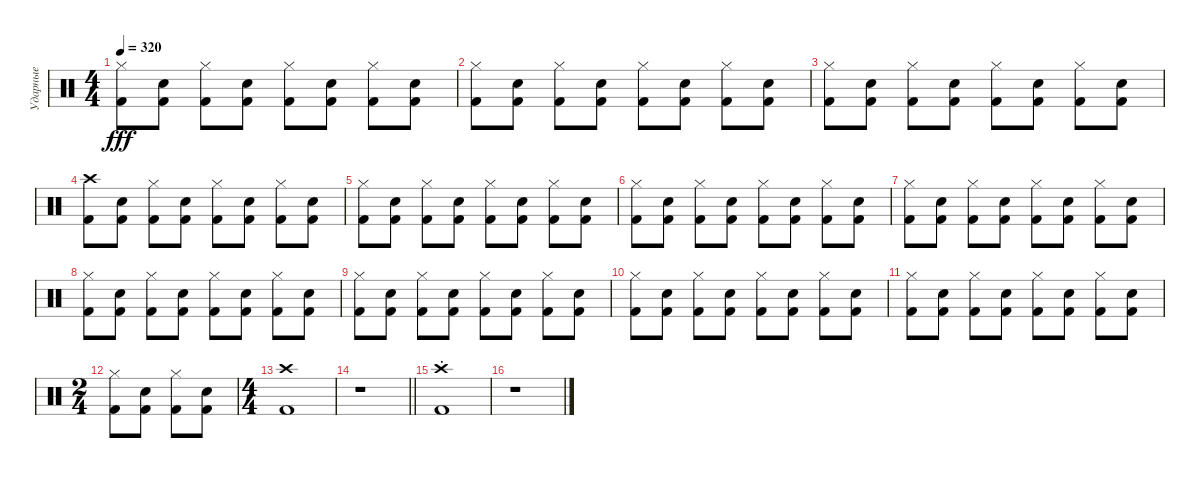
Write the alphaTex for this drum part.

\track ("Ударные" "Ударные") {instrument percussion}
\staff {score}
\articulation defaults
\ts (4 4)
\tempo 320
\clef neutral
\ks c
("Kick (hit) 2" "Hi-Hat (closed)").8{dy fff} ("Kick (hit) 2" "Snare (hit) 2").8 ("Kick (hit) 2" "Hi-Hat (closed)").8 ("Kick (hit) 2" "Snare (hit) 2").8 ("Kick (hit) 2" "Hi-Hat (closed)").8 ("Kick (hit) 2" "Snare (hit) 2").8 ("Kick (hit) 2" "Hi-Hat (closed)").8 ("Kick (hit) 2" "Snare (hit) 2").8 |
("Kick (hit) 2" "Hi-Hat (closed)").8 ("Kick (hit) 2" "Snare (hit) 2").8 ("Kick (hit) 2" "Hi-Hat (closed)").8 ("Kick (hit) 2" "Snare (hit) 2").8 ("Kick (hit) 2" "Hi-Hat (closed)").8 ("Kick (hit) 2" "Snare (hit) 2").8 ("Kick (hit) 2" "Hi-Hat (closed)").8 ("Kick (hit) 2" "Snare (hit) 2").8 |
("Kick (hit) 2" "Hi-Hat (closed)").8 ("Kick (hit) 2" "Snare (hit) 2").8 ("Kick (hit) 2" "Hi-Hat (closed)").8 ("Kick (hit) 2" "Snare (hit) 2").8 ("Kick (hit) 2" "Hi-Hat (closed)").8 ("Kick (hit) 2" "Snare (hit) 2").8 ("Kick (hit) 2" "Hi-Hat (closed)").8 ("Kick (hit) 2" "Snare (hit) 2").8 |
("Kick (hit) 2" "Crash high (hit)").8 ("Kick (hit) 2" "Snare (hit) 2").8 ("Kick (hit) 2" "Hi-Hat (closed)").8 ("Kick (hit) 2" "Snare (hit) 2").8 ("Kick (hit) 2" "Hi-Hat (closed)").8 ("Kick (hit) 2" "Snare (hit) 2").8 ("Kick (hit) 2" "Hi-Hat (closed)").8 ("Kick (hit) 2" "Snare (hit) 2").8 |
("Kick (hit) 2" "Hi-Hat (closed)").8 ("Kick (hit) 2" "Snare (hit) 2").8 ("Kick (hit) 2" "Hi-Hat (closed)").8 ("Kick (hit) 2" "Snare (hit) 2").8 ("Kick (hit) 2" "Hi-Hat (closed)").8 ("Kick (hit) 2" "Snare (hit) 2").8 ("Kick (hit) 2" "Hi-Hat (closed)").8 ("Kick (hit) 2" "Snare (hit) 2").8 |
("Kick (hit) 2" "Hi-Hat (closed)").8 ("Kick (hit) 2" "Snare (hit) 2").8 ("Kick (hit) 2" "Hi-Hat (closed)").8 ("Kick (hit) 2" "Snare (hit) 2").8 ("Kick (hit) 2" "Hi-Hat (closed)").8 ("Kick (hit) 2" "Snare (hit) 2").8 ("Kick (hit) 2" "Hi-Hat (closed)").8 ("Kick (hit) 2" "Snare (hit) 2").8 |
("Kick (hit) 2" "Hi-Hat (closed)").8 ("Kick (hit) 2" "Snare (hit) 2").8 ("Kick (hit) 2" "Hi-Hat (closed)").8 ("Kick (hit) 2" "Snare (hit) 2").8 ("Kick (hit) 2" "Hi-Hat (closed)").8 ("Kick (hit) 2" "Snare (hit) 2").8 ("Kick (hit) 2" "Hi-Hat (closed)").8 ("Kick (hit) 2" "Snare (hit) 2").8 |
("Kick (hit) 2" "Hi-Hat (closed)").8 ("Kick (hit) 2" "Snare (hit) 2").8 ("Kick (hit) 2" "Hi-Hat (closed)").8 ("Kick (hit) 2" "Snare (hit) 2").8 ("Kick (hit) 2" "Hi-Hat (closed)").8 ("Kick (hit) 2" "Snare (hit) 2").8 ("Kick (hit) 2" "Hi-Hat (closed)").8 ("Kick (hit) 2" "Snare (hit) 2").8 |
("Kick (hit) 2" "Hi-Hat (closed)").8 ("Kick (hit) 2" "Snare (hit) 2").8 ("Kick (hit) 2" "Hi-Hat (closed)").8 ("Kick (hit) 2" "Snare (hit) 2").8 ("Kick (hit) 2" "Hi-Hat (closed)").8 ("Kick (hit) 2" "Snare (hit) 2").8 ("Kick (hit) 2" "Hi-Hat (closed)").8 ("Kick (hit) 2" "Snare (hit) 2").8 |
("Kick (hit) 2" "Hi-Hat (closed)").8 ("Kick (hit) 2" "Snare (hit) 2").8 ("Kick (hit) 2" "Hi-Hat (closed)").8 ("Kick (hit) 2" "Snare (hit) 2").8 ("Kick (hit) 2" "Hi-Hat (closed)").8 ("Kick (hit) 2" "Snare (hit) 2").8 ("Kick (hit) 2" "Hi-Hat (closed)").8 ("Kick (hit) 2" "Snare (hit) 2").8 |
("Kick (hit) 2" "Hi-Hat (closed)").8 ("Kick (hit) 2" "Snare (hit) 2").8 ("Kick (hit) 2" "Hi-Hat (closed)").8 ("Kick (hit) 2" "Snare (hit) 2").8 ("Kick (hit) 2" "Hi-Hat (closed)").8 ("Kick (hit) 2" "Snare (hit) 2").8 ("Kick (hit) 2" "Hi-Hat (closed)").8 ("Kick (hit) 2" "Snare (hit) 2").8 |
\ts (2 4)
("Kick (hit) 2" "Hi-Hat (closed)").8 ("Kick (hit) 2" "Snare (hit) 2").8 ("Kick (hit) 2" "Hi-Hat (closed)").8 ("Kick (hit) 2" "Snare (hit) 2").8 |
\ts (4 4)
("Kick (hit) 2" "Crash high (hit)").1 |
\barLineRight lightlight
r.1 |
("Kick (hit) 2"{st} "Crash high (hit)"{st}).1 |
r.1
